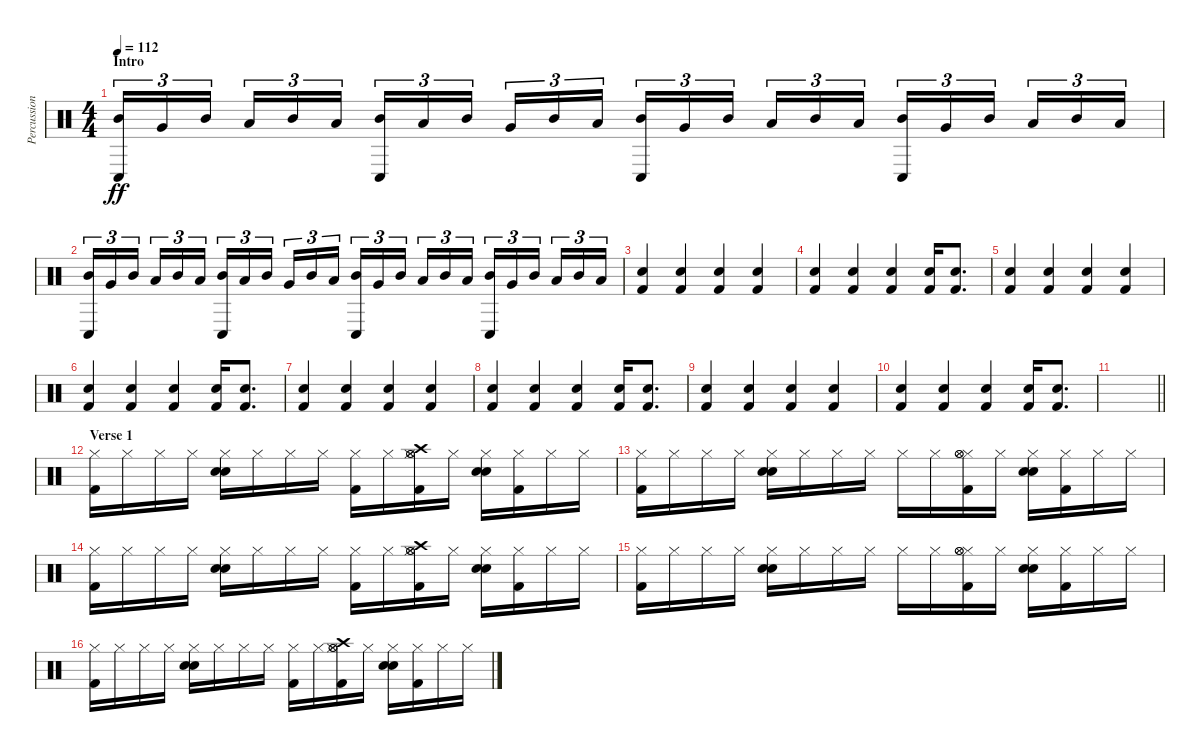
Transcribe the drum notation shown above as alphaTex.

\track ("Percussion" "Percussion") {instrument percussion}
\staff {score}
\articulation defaults
\ts (4 4)
\section ("" "Intro")
\tempo 112
\clef neutral
\ks c
("Conga low (hit)" "Mid Tom (hit)").16{tu (3 2) dy ff} "Very Low Tom (hit)".16{tu (3 2)} "Mid Tom (hit)".16{tu (3 2) beam splitsecondary} "Low Tom (hit)".16{tu (3 2)} "Mid Tom (hit)".16{tu (3 2)} "Low Floor Tom (hit)".16{tu (3 2)} ("Mid Tom (hit)" "Conga low (hit)").16{tu (3 2)} "Low Tom (hit)".16{tu (3 2)} "Mid Tom (hit)".16{tu (3 2) beam splitsecondary} "Very Low Tom (hit)".16{tu (3 2)} "Mid Tom (hit)".16{tu (3 2)} "Low Floor Tom (hit)".16{tu (3 2)} ("Mid Tom (hit)" "Conga low (hit)").16{tu (3 2)} "Very Low Tom (hit)".16{tu (3 2)} "Mid Tom (hit)".16{tu (3 2) beam splitsecondary} "Low Tom (hit)".16{tu (3 2)} "Mid Tom (hit)".16{tu (3 2)} "Low Floor Tom (hit)".16{tu (3 2)} ("Mid Tom (hit)" "Conga low (hit)").16{tu (3 2)} "Very Low Tom (hit)".16{tu (3 2)} "Mid Tom (hit)".16{tu (3 2) beam splitsecondary} "Low Tom (hit)".16{tu (3 2)} "Mid Tom (hit)".16{tu (3 2)} "Low Floor Tom (hit)".16{tu (3 2)} |
("Conga low (hit)" "Mid Tom (hit)").16{tu (3 2)} "Very Low Tom (hit)".16{tu (3 2)} "Mid Tom (hit)".16{tu (3 2) beam splitsecondary} "Low Tom (hit)".16{tu (3 2)} "Mid Tom (hit)".16{tu (3 2)} "Low Floor Tom (hit)".16{tu (3 2)} ("Mid Tom (hit)" "Conga low (hit)").16{tu (3 2)} "Low Tom (hit)".16{tu (3 2)} "Mid Tom (hit)".16{tu (3 2) beam splitsecondary} "Very Low Tom (hit)".16{tu (3 2)} "Mid Tom (hit)".16{tu (3 2)} "Low Floor Tom (hit)".16{tu (3 2)} ("Mid Tom (hit)" "Conga low (hit)").16{tu (3 2)} "Very Low Tom (hit)".16{tu (3 2)} "Mid Tom (hit)".16{tu (3 2) beam splitsecondary} "Low Tom (hit)".16{tu (3 2)} "Mid Tom (hit)".16{tu (3 2)} "Low Floor Tom (hit)".16{tu (3 2)} ("Mid Tom (hit)" "Conga low (hit)").16{tu (3 2)} "Very Low Tom (hit)".16{tu (3 2)} "Mid Tom (hit)".16{tu (3 2) beam splitsecondary} "Low Tom (hit)".16{tu (3 2)} "Mid Tom (hit)".16{tu (3 2)} "Low Floor Tom (hit)".16{tu (3 2)} |
("Snare (hit) 2" "Kick (hit) 2").4 ("Snare (hit) 2" "Kick (hit) 2").4 ("Snare (hit) 2" "Kick (hit) 2").4 ("Snare (hit) 2" "Kick (hit) 2").4 |
("Snare (hit) 2" "Kick (hit) 2").4 ("Snare (hit) 2" "Kick (hit) 2").4 ("Snare (hit) 2" "Kick (hit) 2").4 ("Snare (hit) 2" "Kick (hit) 2").16 ("Snare (hit) 2" "Kick (hit) 2").8{d} |
("Snare (hit) 2" "Kick (hit) 2").4 ("Snare (hit) 2" "Kick (hit) 2").4 ("Snare (hit) 2" "Kick (hit) 2").4 ("Snare (hit) 2" "Kick (hit) 2").4 |
("Snare (hit) 2" "Kick (hit) 2").4 ("Snare (hit) 2" "Kick (hit) 2").4 ("Snare (hit) 2" "Kick (hit) 2").4 ("Snare (hit) 2" "Kick (hit) 2").16 ("Snare (hit) 2" "Kick (hit) 2").8{d} |
("Snare (hit) 2" "Kick (hit) 2").4 ("Snare (hit) 2" "Kick (hit) 2").4 ("Snare (hit) 2" "Kick (hit) 2").4 ("Snare (hit) 2" "Kick (hit) 2").4 |
("Snare (hit) 2" "Kick (hit) 2").4 ("Snare (hit) 2" "Kick (hit) 2").4 ("Snare (hit) 2" "Kick (hit) 2").4 ("Snare (hit) 2" "Kick (hit) 2").16 ("Snare (hit) 2" "Kick (hit) 2").8{d} |
("Snare (hit) 2" "Kick (hit) 2").4 ("Snare (hit) 2" "Kick (hit) 2").4 ("Snare (hit) 2" "Kick (hit) 2").4 ("Snare (hit) 2" "Kick (hit) 2").4 |
("Snare (hit) 2" "Kick (hit) 2").4 ("Snare (hit) 2" "Kick (hit) 2").4 ("Snare (hit) 2" "Kick (hit) 2").4 ("Snare (hit) 2" "Kick (hit) 2").16 ("Snare (hit) 2" "Kick (hit) 2").8{d} |
\barLineRight lightlight
|
\section ("" "Verse 1")
("Kick (hit) 2" "Hi-Hat (closed)").16 "Hi-Hat (closed)".16 "Hi-Hat (closed)".16 "Hi-Hat (closed)".16 ("Snare (hit) 2" "Hi-Hat (closed)" "Hand Clap (hit)").16 "Hi-Hat (closed)".16 "Hi-Hat (closed)".16 "Hi-Hat (closed)".16 ("Kick (hit) 2" "Hi-Hat (closed)").16 "Hi-Hat (closed)".16 ("Kick (hit) 2" "Crash high (hit)" "Hi-Hat (closed)" "Hi-Hat (open)" "Hi-Hat (open)").16 "Hi-Hat (closed)".16 ("Snare (hit) 2" "Hi-Hat (closed)" "Hand Clap (hit)").16 ("Kick (hit) 2" "Hi-Hat (closed)").16 "Hi-Hat (closed)".16 "Hi-Hat (closed)".16 |
("Kick (hit) 2" "Hi-Hat (closed)").16 "Hi-Hat (closed)".16 "Hi-Hat (closed)".16 "Hi-Hat (closed)".16 ("Snare (hit) 2" "Hi-Hat (closed)" "Hand Clap (hit)").16 "Hi-Hat (closed)".16 "Hi-Hat (closed)".16 "Hi-Hat (closed)".16 "Hi-Hat (closed)".16 "Hi-Hat (closed)".16 ("Kick (hit) 2" "Hi-Hat (closed)" "Hi-Hat (open)" "Hi-Hat (open)").16 "Hi-Hat (closed)".16 ("Snare (hit) 2" "Hi-Hat (closed)" "Hand Clap (hit)").16 ("Kick (hit) 2" "Hi-Hat (closed)").16 "Hi-Hat (closed)".16 "Hi-Hat (closed)".16 |
("Kick (hit) 2" "Hi-Hat (closed)").16 "Hi-Hat (closed)".16 "Hi-Hat (closed)".16 "Hi-Hat (closed)".16 ("Snare (hit) 2" "Hi-Hat (closed)" "Hand Clap (hit)").16 "Hi-Hat (closed)".16 "Hi-Hat (closed)".16 "Hi-Hat (closed)".16 ("Kick (hit) 2" "Hi-Hat (closed)").16 "Hi-Hat (closed)".16 ("Kick (hit) 2" "Crash high (hit)" "Hi-Hat (closed)" "Hi-Hat (open)" "Hi-Hat (open)").16 "Hi-Hat (closed)".16 ("Snare (hit) 2" "Hi-Hat (closed)" "Hand Clap (hit)").16 ("Kick (hit) 2" "Hi-Hat (closed)").16 "Hi-Hat (closed)".16 "Hi-Hat (closed)".16 |
("Kick (hit) 2" "Hi-Hat (closed)").16 "Hi-Hat (closed)".16 "Hi-Hat (closed)".16 "Hi-Hat (closed)".16 ("Snare (hit) 2" "Hi-Hat (closed)" "Hand Clap (hit)").16 "Hi-Hat (closed)".16 "Hi-Hat (closed)".16 "Hi-Hat (closed)".16 "Hi-Hat (closed)".16 "Hi-Hat (closed)".16 ("Kick (hit) 2" "Hi-Hat (closed)" "Hi-Hat (open)" "Hi-Hat (open)").16 "Hi-Hat (closed)".16 ("Snare (hit) 2" "Hi-Hat (closed)" "Hand Clap (hit)").16 ("Kick (hit) 2" "Hi-Hat (closed)").16 "Hi-Hat (closed)".16 "Hi-Hat (closed)".16 |
("Kick (hit) 2" "Hi-Hat (closed)").16 "Hi-Hat (closed)".16 "Hi-Hat (closed)".16 "Hi-Hat (closed)".16 ("Snare (hit) 2" "Hi-Hat (closed)" "Hand Clap (hit)").16 "Hi-Hat (closed)".16 "Hi-Hat (closed)".16 "Hi-Hat (closed)".16 ("Kick (hit) 2" "Hi-Hat (closed)").16 "Hi-Hat (closed)".16 ("Kick (hit) 2" "Crash high (hit)" "Hi-Hat (closed)" "Hi-Hat (open)" "Hi-Hat (open)").16 "Hi-Hat (closed)".16 ("Snare (hit) 2" "Hi-Hat (closed)" "Hand Clap (hit)").16 ("Kick (hit) 2" "Hi-Hat (closed)").16 "Hi-Hat (closed)".16 "Hi-Hat (closed)".16
